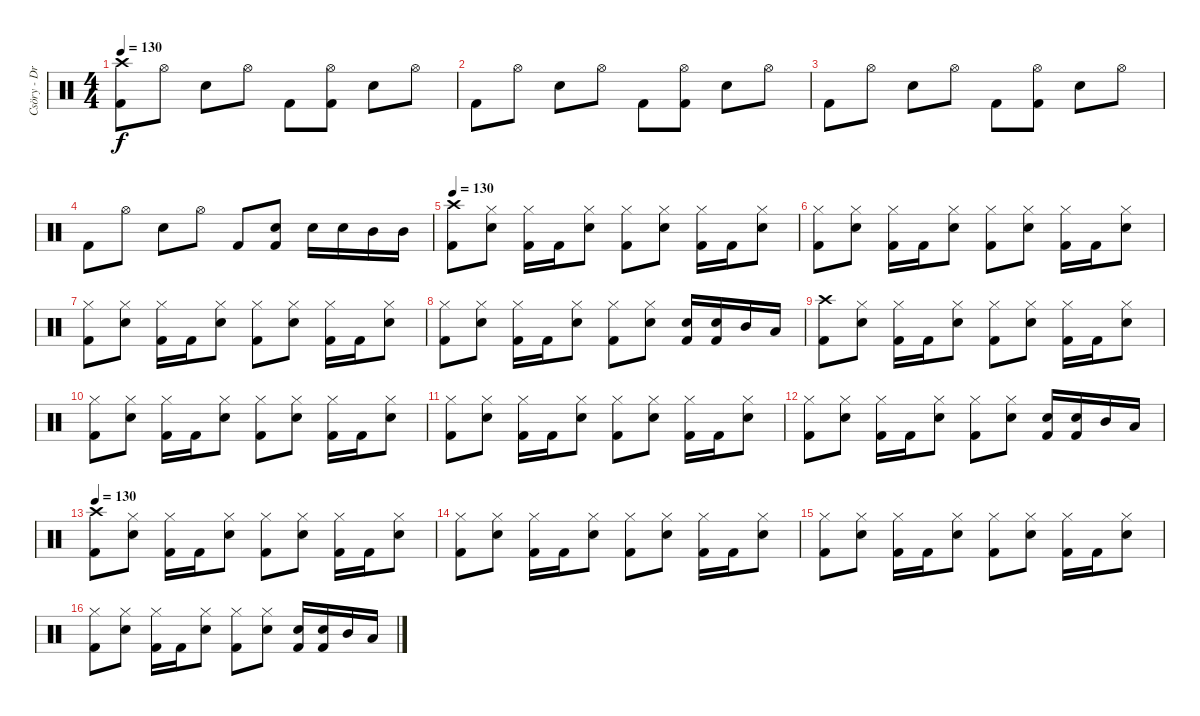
\track ("Csöry - DrumZ" "Csöry - Dr") {instrument percussion}
\staff {score}
\articulation defaults
\ts (4 4)
\tempo 130
\clef neutral
\ks c
("Crash high (hit)" "Kick (hit) 2").8{dy f} "Hi-Hat (open)".8 "Snare (hit) 2".8 "Hi-Hat (open)".8 "Kick (hit) 2".8 ("Hi-Hat (open)" "Kick (hit) 2").8 "Snare (hit) 2".8 "Hi-Hat (open)".8 |
"Kick (hit) 2".8 "Hi-Hat (open)".8 "Snare (hit) 2".8 "Hi-Hat (open)".8 "Kick (hit) 2".8 ("Hi-Hat (open)" "Kick (hit) 2").8 "Snare (hit) 2".8 "Hi-Hat (open)".8 |
"Kick (hit) 2".8 "Hi-Hat (open)".8 "Snare (hit) 2".8 "Hi-Hat (open)".8 "Kick (hit) 2".8 ("Hi-Hat (open)" "Kick (hit) 2").8 "Snare (hit) 2".8 "Hi-Hat (open)".8 |
"Kick (hit) 2".8 "Hi-Hat (open)".8 "Snare (hit) 2".8 "Hi-Hat (open)".8 "Kick (hit) 2".8 ("Snare (hit) 2" "Kick (hit) 2").8 "Snare (hit) 2".16 "Snare (hit) 2".16 "Mid Tom (hit)".16 "Mid Tom (hit)".16 |
\tempo 130
("Crash high (hit)" "Kick (hit) 2").8 ("Hi-Hat (closed)" "Snare (hit) 2").8 ("Hi-Hat (closed)" "Kick (hit) 2").16 "Kick (hit) 2".16 ("Hi-Hat (closed)" "Snare (hit) 2").8 ("Hi-Hat (closed)" "Kick (hit) 2").8 ("Hi-Hat (closed)" "Snare (hit) 2").8 ("Hi-Hat (closed)" "Kick (hit) 2").16 "Kick (hit) 2".16 ("Hi-Hat (closed)" "Snare (hit) 2").8 |
("Hi-Hat (closed)" "Kick (hit) 2").8 ("Hi-Hat (closed)" "Snare (hit) 2").8 ("Hi-Hat (closed)" "Kick (hit) 2").16 "Kick (hit) 2".16 ("Hi-Hat (closed)" "Snare (hit) 2").8 ("Hi-Hat (closed)" "Kick (hit) 2").8 ("Hi-Hat (closed)" "Snare (hit) 2").8 ("Hi-Hat (closed)" "Kick (hit) 2").16 "Kick (hit) 2".16 ("Hi-Hat (closed)" "Snare (hit) 2").8 |
("Hi-Hat (closed)" "Kick (hit) 2").8 ("Hi-Hat (closed)" "Snare (hit) 2").8 ("Hi-Hat (closed)" "Kick (hit) 2").16 "Kick (hit) 2".16 ("Hi-Hat (closed)" "Snare (hit) 2").8 ("Hi-Hat (closed)" "Kick (hit) 2").8 ("Hi-Hat (closed)" "Snare (hit) 2").8 ("Hi-Hat (closed)" "Kick (hit) 2").16 "Kick (hit) 2".16 ("Hi-Hat (closed)" "Snare (hit) 2").8 |
("Hi-Hat (closed)" "Kick (hit) 2").8 ("Hi-Hat (closed)" "Snare (hit) 2").8 ("Hi-Hat (closed)" "Kick (hit) 2").16 "Kick (hit) 2".16 ("Hi-Hat (closed)" "Snare (hit) 2").8 ("Hi-Hat (closed)" "Kick (hit) 2").8 ("Hi-Hat (closed)" "Snare (hit) 2").8 ("Snare (hit) 2" "Kick (hit) 2").16 ("Snare (hit) 2" "Kick (hit) 2").16 "Mid Tom (hit)".16 "Low Tom (hit)".16 |
("Crash high (hit)" "Kick (hit) 2").8 ("Hi-Hat (closed)" "Snare (hit) 2").8 ("Hi-Hat (closed)" "Kick (hit) 2").16 "Kick (hit) 2".16 ("Hi-Hat (closed)" "Snare (hit) 2").8 ("Hi-Hat (closed)" "Kick (hit) 2").8 ("Hi-Hat (closed)" "Snare (hit) 2").8 ("Hi-Hat (closed)" "Kick (hit) 2").16 "Kick (hit) 2".16 ("Hi-Hat (closed)" "Snare (hit) 2").8 |
("Hi-Hat (closed)" "Kick (hit) 2").8 ("Hi-Hat (closed)" "Snare (hit) 2").8 ("Hi-Hat (closed)" "Kick (hit) 2").16 "Kick (hit) 2".16 ("Hi-Hat (closed)" "Snare (hit) 2").8 ("Hi-Hat (closed)" "Kick (hit) 2").8 ("Hi-Hat (closed)" "Snare (hit) 2").8 ("Hi-Hat (closed)" "Kick (hit) 2").16 "Kick (hit) 2".16 ("Hi-Hat (closed)" "Snare (hit) 2").8 |
("Hi-Hat (closed)" "Kick (hit) 2").8 ("Hi-Hat (closed)" "Snare (hit) 2").8 ("Hi-Hat (closed)" "Kick (hit) 2").16 "Kick (hit) 2".16 ("Hi-Hat (closed)" "Snare (hit) 2").8 ("Hi-Hat (closed)" "Kick (hit) 2").8 ("Hi-Hat (closed)" "Snare (hit) 2").8 ("Hi-Hat (closed)" "Kick (hit) 2").16 "Kick (hit) 2".16 ("Hi-Hat (closed)" "Snare (hit) 2").8 |
("Hi-Hat (closed)" "Kick (hit) 2").8 ("Hi-Hat (closed)" "Snare (hit) 2").8 ("Hi-Hat (closed)" "Kick (hit) 2").16 "Kick (hit) 2".16 ("Hi-Hat (closed)" "Snare (hit) 2").8 ("Hi-Hat (closed)" "Kick (hit) 2").8 ("Hi-Hat (closed)" "Snare (hit) 2").8 ("Snare (hit) 2" "Kick (hit) 2").16 ("Snare (hit) 2" "Kick (hit) 2").16 "Mid Tom (hit)".16 "Low Tom (hit)".16 |
\tempo 130
("Crash high (hit)" "Kick (hit) 2").8 ("Hi-Hat (closed)" "Snare (hit) 2").8 ("Hi-Hat (closed)" "Kick (hit) 2").16 "Kick (hit) 2".16 ("Hi-Hat (closed)" "Snare (hit) 2").8 ("Hi-Hat (closed)" "Kick (hit) 2").8 ("Hi-Hat (closed)" "Snare (hit) 2").8 ("Hi-Hat (closed)" "Kick (hit) 2").16 "Kick (hit) 2".16 ("Hi-Hat (closed)" "Snare (hit) 2").8 |
("Hi-Hat (closed)" "Kick (hit) 2").8 ("Hi-Hat (closed)" "Snare (hit) 2").8 ("Hi-Hat (closed)" "Kick (hit) 2").16 "Kick (hit) 2".16 ("Hi-Hat (closed)" "Snare (hit) 2").8 ("Hi-Hat (closed)" "Kick (hit) 2").8 ("Hi-Hat (closed)" "Snare (hit) 2").8 ("Hi-Hat (closed)" "Kick (hit) 2").16 "Kick (hit) 2".16 ("Hi-Hat (closed)" "Snare (hit) 2").8 |
("Hi-Hat (closed)" "Kick (hit) 2").8 ("Hi-Hat (closed)" "Snare (hit) 2").8 ("Hi-Hat (closed)" "Kick (hit) 2").16 "Kick (hit) 2".16 ("Hi-Hat (closed)" "Snare (hit) 2").8 ("Hi-Hat (closed)" "Kick (hit) 2").8 ("Hi-Hat (closed)" "Snare (hit) 2").8 ("Hi-Hat (closed)" "Kick (hit) 2").16 "Kick (hit) 2".16 ("Hi-Hat (closed)" "Snare (hit) 2").8 |
("Hi-Hat (closed)" "Kick (hit) 2").8 ("Hi-Hat (closed)" "Snare (hit) 2").8 ("Hi-Hat (closed)" "Kick (hit) 2").16 "Kick (hit) 2".16 ("Hi-Hat (closed)" "Snare (hit) 2").8 ("Hi-Hat (closed)" "Kick (hit) 2").8 ("Hi-Hat (closed)" "Snare (hit) 2").8 ("Snare (hit) 2" "Kick (hit) 2").16 ("Snare (hit) 2" "Kick (hit) 2").16 "Mid Tom (hit)".16 "Low Tom (hit)".16
